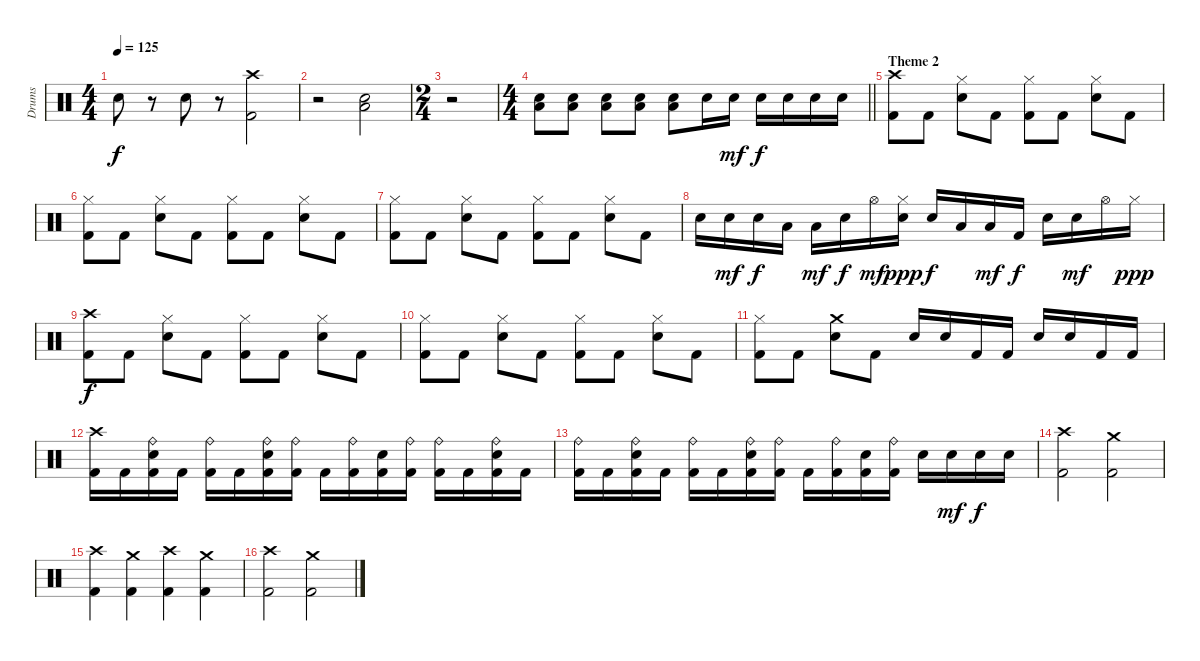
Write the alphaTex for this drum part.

\track ("Drums" "Drums") {instrument percussion}
\staff {score}
\articulation defaults
\ts (4 4)
\tempo 125
\clef neutral
\ks c "Electric Snare (hit)".8{dy f}
r.8 "Electric Snare (hit)".8 r.8 ("Kick (hit) 2" "Crash high (hit)").2 |
r.2 ("Low Floor Tom (hit)" "Electric Snare (hit)").2 |
\ts (2 4)
r.2 |
\ts (4 4)
\barLineRight lightlight
("Low Floor Tom (hit)" "Electric Snare (hit)").8 ("Low Floor Tom (hit)" "Electric Snare (hit)").8 ("Low Floor Tom (hit)" "Electric Snare (hit)").8 ("Low Floor Tom (hit)" "Electric Snare (hit)").8 ("Low Floor Tom (hit)" "Electric Snare (hit)").8 "Electric Snare (hit)".16 "Electric Snare (hit)".16{dy mf} "Electric Snare (hit)".16{dy f} "Electric Snare (hit)".16 "Electric Snare (hit)".16 "Electric Snare (hit)".16 |
\section ("" "Theme 2")
("Kick (hit) 2" "Crash high (hit)").8 "Kick (hit) 2".8 ("Hi-Hat (closed)" "Electric Snare (hit)").8 "Kick (hit) 2".8 ("Kick (hit) 2" "Hi-Hat (closed)").8 "Kick (hit) 2".8 ("Hi-Hat (closed)" "Electric Snare (hit)").8 "Kick (hit) 2".8 |
("Kick (hit) 2" "Hi-Hat (closed)").8 "Kick (hit) 2".8 ("Hi-Hat (closed)" "Electric Snare (hit)").8 "Kick (hit) 2".8 ("Kick (hit) 2" "Hi-Hat (closed)").8 "Kick (hit) 2".8 ("Hi-Hat (closed)" "Electric Snare (hit)").8 "Kick (hit) 2".8 |
("Kick (hit) 2" "Hi-Hat (closed)").8 "Kick (hit) 2".8 ("Hi-Hat (closed)" "Electric Snare (hit)").8 "Kick (hit) 2".8 ("Kick (hit) 2" "Hi-Hat (closed)").8 "Kick (hit) 2".8 ("Hi-Hat (closed)" "Electric Snare (hit)").8 "Kick (hit) 2".8 |
"Electric Snare (hit)".16 "Electric Snare (hit)".16{dy mf} "Electric Snare (hit)".16{dy f} "Low Tom (hit)".16 "Low Tom (hit)".16{dy mf} "Electric Snare (hit)".16{dy f} "Hi-Hat (open)".16{dy mf} ("Hi-Hat (closed)" "Electric Snare (hit)").16{dy ppp} "Electric Snare (hit)".16{dy f} "Low Tom (hit)".16 "Low Tom (hit)".16{dy mf} "Kick (hit) 2".16{dy f} "Electric Snare (hit)".16 "Electric Snare (hit)".16{dy mf} "Hi-Hat (open)".16 "Hi-Hat (closed)".16{dy ppp} |
("Kick (hit) 2" "Crash high (hit)").8{dy f} "Kick (hit) 2".8 ("Hi-Hat (closed)" "Electric Snare (hit)").8 "Kick (hit) 2".8 ("Kick (hit) 2" "Hi-Hat (closed)").8 "Kick (hit) 2".8 ("Hi-Hat (closed)" "Electric Snare (hit)").8 "Kick (hit) 2".8 |
("Kick (hit) 2" "Hi-Hat (closed)").8 "Kick (hit) 2".8 ("Hi-Hat (closed)" "Electric Snare (hit)").8 "Kick (hit) 2".8 ("Kick (hit) 2" "Hi-Hat (closed)").8 "Kick (hit) 2".8 ("Hi-Hat (closed)" "Electric Snare (hit)").8 "Kick (hit) 2".8 |
("Kick (hit) 2" "Hi-Hat (closed)").8 "Kick (hit) 2".8 ("Crash medium (hit)" "Electric Snare (hit)").8 "Kick (hit) 2".8 "Electric Snare (hit)".16 "Electric Snare (hit)".16 "Kick (hit) 2".16 "Kick (hit) 2".16 "Electric Snare (hit)".16 "Electric Snare (hit)".16 "Kick (hit) 2".16 "Kick (hit) 2".16 |
("Kick (hit) 2" "Crash high (hit)").16 "Kick (hit) 2".16 ("Kick (hit) 2" "Ride (bell)" "Electric Snare (hit)").16 "Kick (hit) 2".16 ("Kick (hit) 2" "Ride (bell)").16 "Kick (hit) 2".16 ("Kick (hit) 2" "Ride (bell)" "Electric Snare (hit)").16 ("Kick (hit) 2" "Ride (bell)").16 "Kick (hit) 2".16 ("Kick (hit) 2" "Ride (bell)").16 ("Kick (hit) 2" "Electric Snare (hit)").16 ("Kick (hit) 2" "Ride (bell)").16 ("Kick (hit) 2" "Ride (bell)").16 "Kick (hit) 2".16 ("Kick (hit) 2" "Ride (bell)" "Electric Snare (hit)").16 "Kick (hit) 2".16 |
("Kick (hit) 2" "Ride (bell)").16 "Kick (hit) 2".16 ("Kick (hit) 2" "Ride (bell)" "Electric Snare (hit)").16 "Kick (hit) 2".16 ("Kick (hit) 2" "Ride (bell)").16 "Kick (hit) 2".16 ("Kick (hit) 2" "Ride (bell)" "Electric Snare (hit)").16 ("Kick (hit) 2" "Ride (bell)").16 "Kick (hit) 2".16 ("Kick (hit) 2" "Ride (bell)").16 ("Kick (hit) 2" "Electric Snare (hit)").16 ("Kick (hit) 2" "Ride (bell)").16 "Electric Snare (hit)".16 "Electric Snare (hit)".16{dy mf} "Electric Snare (hit)".16{dy f} "Electric Snare (hit)".16 |
("Kick (hit) 2" "Crash high (hit)").2 ("Kick (hit) 2" "Crash medium (hit)").2 |
("Kick (hit) 2" "Crash high (hit)").4 ("Kick (hit) 2" "Crash medium (hit)").4 ("Kick (hit) 2" "Crash high (hit)").4 ("Kick (hit) 2" "Crash medium (hit)").4 |
("Kick (hit) 2" "Crash high (hit)").2 ("Kick (hit) 2" "Crash medium (hit)").2
